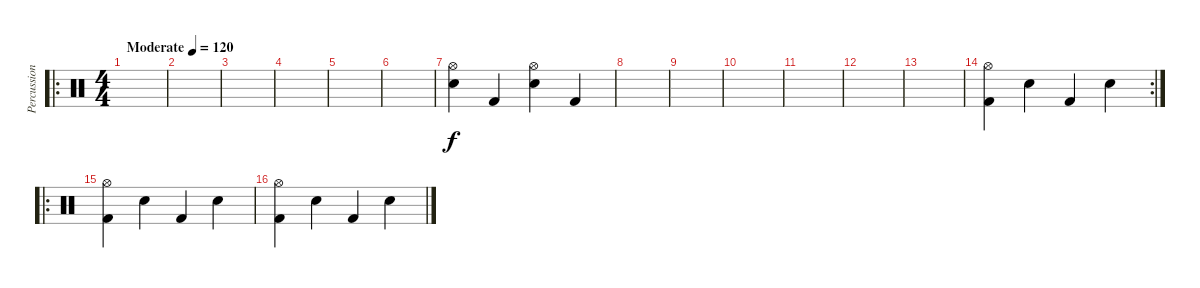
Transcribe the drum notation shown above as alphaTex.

\track ("Percussion" "Percussion") {instrument percussion}
\staff {score}
\articulation defaults
\ro
\ts (4 4)
\tempo (120 "Moderate")
\clef neutral
\ks c
|
|
|
|
|
|
("Hi-Hat (open)" "Electric Snare (hit)").4 "Kick (hit) 2".4 ("Hi-Hat (open)" "Electric Snare (hit)").4 "Kick (hit) 2".4 |
|
|
|
|
|
|
\rc 2
("Hi-Hat (open)" "Kick (hit) 2").4 "Electric Snare (hit)".4 "Kick (hit) 2".4 "Electric Snare (hit)".4 |
\ro
("Hi-Hat (open)" "Kick (hit) 2").4 "Electric Snare (hit)".4 "Kick (hit) 2".4 "Electric Snare (hit)".4 |
("Hi-Hat (open)" "Kick (hit) 2").4 "Electric Snare (hit)".4 "Kick (hit) 2".4 "Electric Snare (hit)".4
